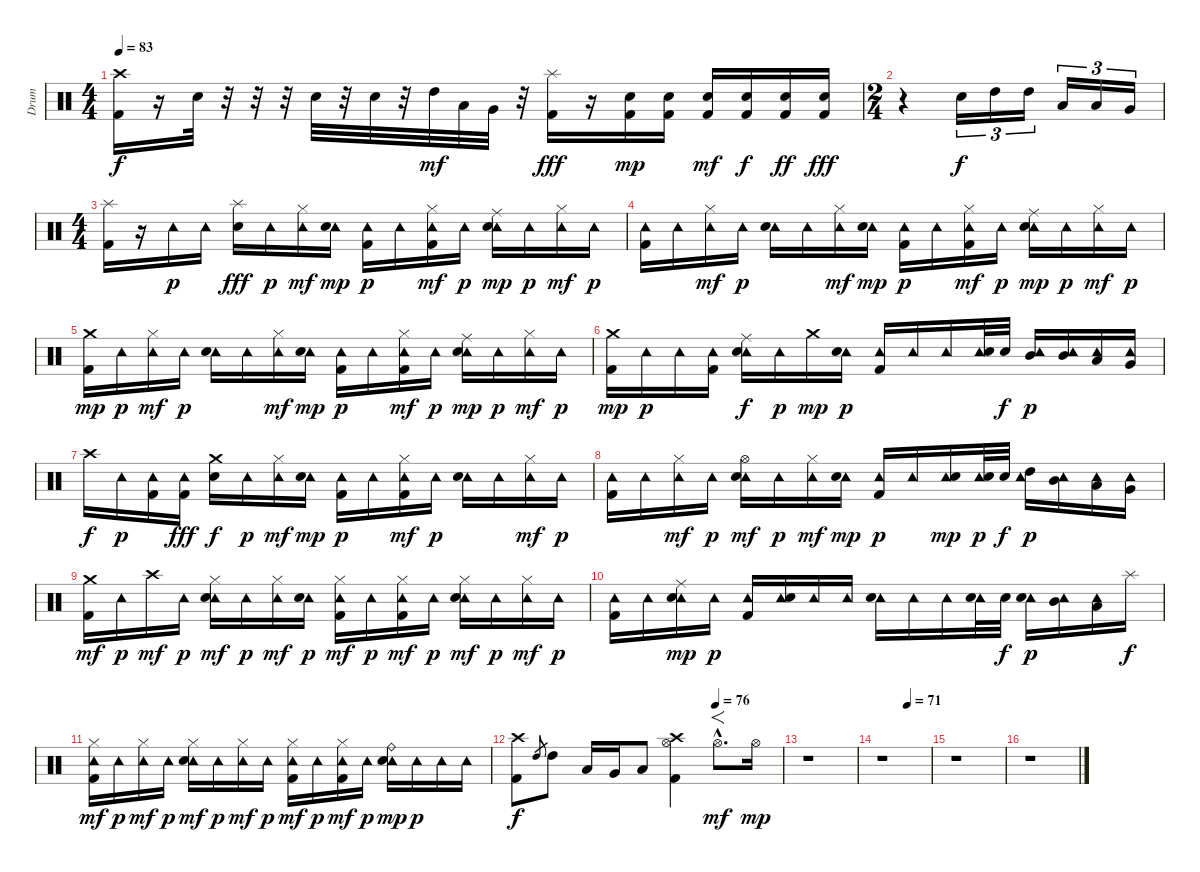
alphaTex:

\track ("Drum" "Drum") {instrument percussion}
\staff {score}
\articulation defaults
\ts (4 4)
\tempo 83
\clef neutral
\ks c
("Crash high (hit)" "Kick (hit) 2").16{dy f} r.16 "Electric Snare (hit)".32 r.32 r.32 r.32 "Electric Snare (hit)".32 r.32 "Electric Snare (hit)".32 r.32 "High Tom (hit)".32{dy mf} "Low Tom (hit)".32 "Very Low Tom (hit)".32 r.32 ("Splash (hit)" "Kick (hit) 2").16{dy fff} r.16 ("Electric Snare (hit)" "Kick (hit) 2").16{dy mp} ("Electric Snare (hit)" "Kick (hit) 2").16 ("Electric Snare (hit)" "Kick (hit) 2").16{dy mf} ("Electric Snare (hit)" "Kick (hit) 2").16{dy f} ("Electric Snare (hit)" "Kick (hit) 2").16{dy ff} ("Electric Snare (hit)" "Kick (hit) 2").16{dy fff} |
\ts (2 4)
r.4 "Electric Snare (hit)".16{tu (3 2) dy f} "High Tom (hit)".16{tu (3 2)} "High Tom (hit)".16{tu (3 2)} "Low Tom (hit)".16{tu (3 2)} "Low Tom (hit)".16{tu (3 2)} "Very Low Tom (hit)".16{tu (3 2)} |
\ts (4 4)
("Splash (hit)" "Kick (hit) 2").16 r.16 "Tambourine (hit)".16{dy p} "Tambourine (hit)".16 ("Splash (hit)" "Electric Snare (hit)").16{dy fff} "Tambourine (hit)".16{dy p} ("Tambourine (hit)" "Hi-Hat (closed)").16{dy mf} ("Tambourine (hit)" "Electric Snare (hit)").16{dy mp} ("Tambourine (hit)" "Kick (hit) 2").16{dy p} "Tambourine (hit)".16 ("Tambourine (hit)" "Hi-Hat (closed)" "Kick (hit) 2").16{dy mf} "Tambourine (hit)".16{dy p} ("Tambourine (hit)" "Ride (middle)" "Electric Snare (hit)").16{dy mp} "Tambourine (hit)".16{dy p} ("Tambourine (hit)" "Hi-Hat (closed)").16{dy mf} "Tambourine (hit)".16{dy p} |
("Tambourine (hit)" "Kick (hit) 2").16 "Tambourine (hit)".16 ("Tambourine (hit)" "Hi-Hat (closed)").16{dy mf} "Tambourine (hit)".16{dy p} ("Tambourine (hit)" "Electric Snare (hit)").16 "Tambourine (hit)".16 ("Tambourine (hit)" "Hi-Hat (closed)").16{dy mf} ("Tambourine (hit)" "Electric Snare (hit)").16{dy mp} ("Tambourine (hit)" "Kick (hit) 2").16{dy p} "Tambourine (hit)".16 ("Tambourine (hit)" "Hi-Hat (closed)" "Kick (hit) 2").16{dy mf} "Tambourine (hit)".16{dy p} ("Tambourine (hit)" "Ride (middle)" "Electric Snare (hit)").16{dy mp} "Tambourine (hit)".16{dy p} ("Tambourine (hit)" "Hi-Hat (closed)").16{dy mf} "Tambourine (hit)".16{dy p} |
("Crash medium (hit)" "Kick (hit) 2").16{dy mp} "Tambourine (hit)".16{dy p} ("Tambourine (hit)" "Hi-Hat (closed)").16{dy mf} "Tambourine (hit)".16{dy p} ("Tambourine (hit)" "Electric Snare (hit)").16 "Tambourine (hit)".16 ("Tambourine (hit)" "Hi-Hat (closed)").16{dy mf} ("Tambourine (hit)" "Electric Snare (hit)").16{dy mp} ("Tambourine (hit)" "Kick (hit) 2").16{dy p} "Tambourine (hit)".16 ("Tambourine (hit)" "Hi-Hat (closed)" "Kick (hit) 2").16{dy mf} "Tambourine (hit)".16{dy p} ("Tambourine (hit)" "Ride (middle)" "Electric Snare (hit)").16{dy mp} "Tambourine (hit)".16{dy p} ("Tambourine (hit)" "Hi-Hat (closed)").16{dy mf} "Tambourine (hit)".16{dy p} |
("Crash medium (hit)" "Kick (hit) 2").16{dy mp} "Tambourine (hit)".16{dy p} "Tambourine (hit)".16 ("Tambourine (hit)" "Kick (hit) 2").16 ("Tambourine (hit)" "Ride (middle)" "Electric Snare (hit)").16{dy f} "Tambourine (hit)".16{dy p} "Crash medium (hit)".16{dy mp} ("Tambourine (hit)" "Electric Snare (hit)").16{dy p} ("Tambourine (hit)" "Kick (hit) 2").16 "Tambourine (hit)".16 "Tambourine (hit)".16 ("Tambourine (hit)" "Electric Snare (hit)").32 "Electric Snare (hit)".32{dy f} ("Tambourine (hit)" "Mid Tom (hit)").16{dy p} ("Tambourine (hit)" "Mid Tom (hit)").16 ("Tambourine (hit)" "Low Tom (hit)").16 ("Tambourine (hit)" "Very Low Tom (hit)").16 |
"Crash high (hit)".16{dy f} "Tambourine (hit)".16{dy p} ("Tambourine (hit)" "Kick (hit) 2").16 ("Tambourine (hit)" "Kick (hit) 2").16{dy fff} ("Crash medium (hit)" "Electric Snare (hit)").16{dy f} "Tambourine (hit)".16{dy p} ("Tambourine (hit)" "Hi-Hat (closed)").16{dy mf} ("Tambourine (hit)" "Electric Snare (hit)").16{dy mp} ("Tambourine (hit)" "Kick (hit) 2").16{dy p} "Tambourine (hit)".16 ("Tambourine (hit)" "Hi-Hat (closed)" "Kick (hit) 2").16{dy mf} "Tambourine (hit)".16{dy p} ("Tambourine (hit)" "Electric Snare (hit)").16 "Tambourine (hit)".16 ("Tambourine (hit)" "Hi-Hat (closed)").16{dy mf} "Tambourine (hit)".16{dy p} |
("Tambourine (hit)" "Kick (hit) 2").16 "Tambourine (hit)".16 ("Tambourine (hit)" "Hi-Hat (closed)").16{dy mf} "Tambourine (hit)".16{dy p} ("Tambourine (hit)" "Hi-Hat (open)" "Electric Snare (hit)").16{dy mf} "Tambourine (hit)".16{dy p} ("Tambourine (hit)" "Hi-Hat (closed)").16{dy mf} ("Tambourine (hit)" "Electric Snare (hit)").16{dy mp} ("Tambourine (hit)" "Kick (hit) 2").16{dy p} "Tambourine (hit)".16 ("Tambourine (hit)" "Electric Snare (hit)").16{dy mp} ("Tambourine (hit)" "Electric Snare (hit)").32{dy p} "Electric Snare (hit)".32{dy f} ("Tambourine (hit)" "High Tom (hit)").16{dy p} ("Tambourine (hit)" "Mid Tom (hit)").16 ("Tambourine (hit)" "Low Tom (hit)").16 ("Tambourine (hit)" "Very Low Tom (hit)").16 |
("Crash medium (hit)" "Kick (hit) 2").16{dy mf} "Tambourine (hit)".16{dy p} "Crash high (hit)".16{dy mf} "Tambourine (hit)".16{dy p} ("Tambourine (hit)" "Hi-Hat (closed)" "Electric Snare (hit)").16{dy mf} "Tambourine (hit)".16{dy p} ("Tambourine (hit)" "Hi-Hat (closed)").16{dy mf} ("Tambourine (hit)" "Electric Snare (hit)").16{dy p} ("Tambourine (hit)" "Hi-Hat (closed)" "Kick (hit) 2").16{dy mf} "Tambourine (hit)".16{dy p} ("Tambourine (hit)" "Hi-Hat (closed)" "Kick (hit) 2").16{dy mf} "Tambourine (hit)".16{dy p} ("Tambourine (hit)" "Hi-Hat (closed)" "Electric Snare (hit)").16{dy mf} "Tambourine (hit)".16{dy p} ("Tambourine (hit)" "Hi-Hat (closed)").16{dy mf} "Tambourine (hit)".16{dy p} |
("Tambourine (hit)" "Kick (hit) 2").16 "Tambourine (hit)".16 ("Tambourine (hit)" "Ride (middle)" "Electric Snare (hit)").16{dy mp} "Tambourine (hit)".16{dy p} ("Tambourine (hit)" "Kick (hit) 2").16 ("Tambourine (hit)" "Electric Snare (hit)").16 "Tambourine (hit)".16 "Tambourine (hit)".16 ("Tambourine (hit)" "Electric Snare (hit)").16 "Tambourine (hit)".16 "Tambourine (hit)".16 ("Tambourine (hit)" "Electric Snare (hit)").32 "Electric Snare (hit)".32{dy f} ("Tambourine (hit)" "Electric Snare (hit)").16{dy p} ("Tambourine (hit)" "Mid Tom (hit)").16 ("Tambourine (hit)" "Low Tom (hit)").16 "Splash (hit)".16{dy f} |
("Tambourine (hit)" "Hi-Hat (closed)" "Kick (hit) 2").16{dy mf} "Tambourine (hit)".16{dy p} ("Tambourine (hit)" "Hi-Hat (closed)").16{dy mf} "Tambourine (hit)".16{dy p} ("Tambourine (hit)" "Hi-Hat (closed)" "Electric Snare (hit)").16{dy mf} "Tambourine (hit)".16{dy p} ("Tambourine (hit)" "Hi-Hat (closed)").16{dy mf} "Tambourine (hit)".16{dy p} ("Tambourine (hit)" "Hi-Hat (closed)" "Kick (hit) 2").16{dy mf} "Tambourine (hit)".16{dy p} ("Tambourine (hit)" "Hi-Hat (closed)" "Kick (hit) 2").16{dy mf} "Tambourine (hit)".16{dy p} ("Tambourine (hit)" "Ride (bell)" "Electric Snare (hit)").16{dy mp} "Tambourine (hit)".16{dy p} "Tambourine (hit)".16 "Tambourine (hit)".16 |
\tempo (76 0.75)
("Crash high (hit)" "Kick (hit) 2").8{dy f} "High Tom (hit)".8{gr} "High Tom (hit)".8 "Low Tom (hit)".16 "Very Low Tom (hit)".16 "Low Floor Tom (hit)".8 ("Crash high (hit)" "Hi-Hat (open)" "Kick (hit) 2").4 "Hi-Hat (open)"{tr (59 64) hac}.8{f d dy mf} "Hi-Hat (open)".16{dy mp} |
r.1 |
\tempo (71 0.53125)
r.1 |
r.1 |
r.1
